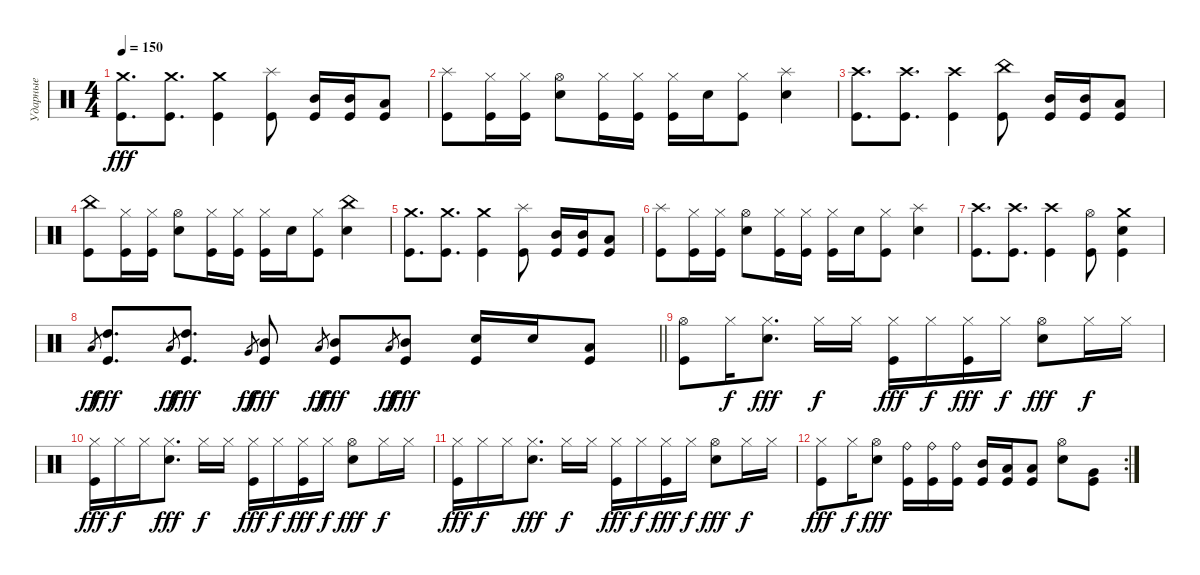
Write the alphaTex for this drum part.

\track ("Ударные" "Ударные") {instrument percussion}
\staff {score}
\articulation defaults
\ts (4 4)
\tempo 150
\clef neutral
\ks c
("Crash medium (hit)" "Kick (hit)").8{d dy fff} ("Crash medium (hit)" "Kick (hit)").8{d} ("Crash medium (hit)" "Kick (hit)").4 ("Splash (hit)" "Kick (hit)").8 ("Mid Tom (hit)" "Kick (hit)").16 ("Mid Tom (hit)" "Kick (hit)").16 ("Low Tom (hit)" "Kick (hit)").8 |
("Splash (hit)" "Kick (hit)").8 ("Hi-Hat (closed)" "Kick (hit)").16 ("Hi-Hat (closed)" "Kick (hit)").16 ("Hi-Hat (open)" "Electric Snare (hit)").8 ("Hi-Hat (closed)" "Kick (hit)").16 ("Hi-Hat (closed)" "Kick (hit)").16 ("Hi-Hat (closed)" "Kick (hit)").16 "Electric Snare (hit)".16 ("Hi-Hat (closed)" "Kick (hit)").8 ("Splash (hit)" "Electric Snare (hit)").4 |
("Crash high (hit)" "Kick (hit)").8{d} ("Crash high (hit)" "Kick (hit)").8{d} ("Crash high (hit)" "Kick (hit)").4 ("China (hit)" "Kick (hit)").8 ("Mid Tom (hit)" "Kick (hit)").16 ("Mid Tom (hit)" "Kick (hit)").16 ("Low Tom (hit)" "Kick (hit)").8 |
("China (hit)" "Kick (hit)").8 ("Hi-Hat (closed)" "Kick (hit)").16 ("Hi-Hat (closed)" "Kick (hit)").16 ("Hi-Hat (open)" "Electric Snare (hit)").8 ("Hi-Hat (closed)" "Kick (hit)").16 ("Hi-Hat (closed)" "Kick (hit)").16 ("Hi-Hat (closed)" "Kick (hit)").16 "Electric Snare (hit)".16 ("Hi-Hat (closed)" "Kick (hit)").8 ("China (hit)" "Electric Snare (hit)").4 |
("Crash medium (hit)" "Kick (hit)").8{d} ("Crash medium (hit)" "Kick (hit)").8{d} ("Crash medium (hit)" "Kick (hit)").4 ("Splash (hit)" "Kick (hit)").8 ("Mid Tom (hit)" "Kick (hit)").16 ("Mid Tom (hit)" "Kick (hit)").16 ("Low Tom (hit)" "Kick (hit)").8 |
("Splash (hit)" "Kick (hit)").8 ("Hi-Hat (closed)" "Kick (hit)").16 ("Hi-Hat (closed)" "Kick (hit)").16 ("Hi-Hat (open)" "Electric Snare (hit)").8 ("Hi-Hat (closed)" "Kick (hit)").16 ("Hi-Hat (closed)" "Kick (hit)").16 ("Hi-Hat (closed)" "Kick (hit)").16 "Electric Snare (hit)".16 ("Hi-Hat (closed)" "Kick (hit)").8 ("Splash (hit)" "Electric Snare (hit)").4 |
("Crash high (hit)" "Kick (hit)").8{d} ("Crash high (hit)" "Kick (hit)").8{d} ("Crash high (hit)" "Kick (hit)").4 ("Hi-Hat (open)" "Kick (hit)").8 ("Crash medium (hit)" "Electric Snare (hit)" "Kick (hit)").4 |
\barLineRight lightlight "Low Tom (hit)".8{gr dy ff}
("High Tom (hit)" "Kick (hit)").8{d dy fff} "Low Tom (hit)".8{gr dy ff} ("High Tom (hit)" "Kick (hit)").8{d dy fff} "Very Low Tom (hit)".8{gr dy ff} ("Mid Tom (hit)" "Kick (hit)").8{dy fff} "Low Floor Tom (hit)".8{gr dy ff} ("Mid Tom (hit)" "Kick (hit)").8{dy fff} "Low Floor Tom (hit)".8{gr dy ff} ("Mid Tom (hit)" "Kick (hit)").8{dy fff} ("Electric Snare (hit)" "Kick (hit)").16 "Electric Snare (hit)".16 ("Low Tom (hit)" "Kick (hit)").8 |
("Hi-Hat (open)" "Kick (hit)").8 "Hi-Hat (closed)".16{dy f} ("Hi-Hat (closed)" "Electric Snare (hit)").8{d dy fff} "Hi-Hat (closed)".16{dy f} "Hi-Hat (closed)".16 ("Hi-Hat (closed)" "Kick (hit)").16{dy fff} "Hi-Hat (closed)".16{dy f} ("Hi-Hat (closed)" "Kick (hit)").16{dy fff} "Hi-Hat (closed)".16{dy f} ("Hi-Hat (open)" "Electric Snare (hit)").8{dy fff} "Hi-Hat (closed)".16{dy f} "Hi-Hat (closed)".16 |
("Hi-Hat (closed)" "Kick (hit)").16{dy fff} "Hi-Hat (closed)".16{dy f} "Hi-Hat (closed)".16 ("Hi-Hat (closed)" "Electric Snare (hit)").8{d dy fff} "Hi-Hat (closed)".16{dy f} "Hi-Hat (closed)".16 ("Hi-Hat (closed)" "Kick (hit)").16{dy fff} "Hi-Hat (closed)".16{dy f} ("Hi-Hat (closed)" "Kick (hit)").16{dy fff} "Hi-Hat (closed)".16{dy f} ("Hi-Hat (open)" "Electric Snare (hit)").8{dy fff} "Hi-Hat (closed)".16{dy f} "Hi-Hat (closed)".16 |
("Hi-Hat (closed)" "Kick (hit)").16{dy fff} "Hi-Hat (closed)".16{dy f} "Hi-Hat (closed)".16 ("Hi-Hat (closed)" "Electric Snare (hit)").8{d dy fff} "Hi-Hat (closed)".16{dy f} "Hi-Hat (closed)".16 ("Hi-Hat (closed)" "Kick (hit)").16{dy fff} "Hi-Hat (closed)".16{dy f} ("Hi-Hat (closed)" "Kick (hit)").16{dy fff} "Hi-Hat (closed)".16{dy f} ("Hi-Hat (open)" "Electric Snare (hit)").8{dy fff} "Hi-Hat (closed)".16{dy f} "Hi-Hat (closed)".16 |
\rc 2
("Hi-Hat (closed)" "Kick (hit)").8{dy fff} "Hi-Hat (closed)".16{dy f} ("Hi-Hat (open)" "Electric Snare (hit)").8{dy fff} ("Ride (bell)" "Kick (hit)").16 ("Ride (bell)" "Kick (hit)").16 ("Ride (bell)" "Kick (hit)").16 ("Mid Tom (hit)" "Kick (hit)").16 ("Low Tom (hit)" "Kick (hit)").16 ("Low Tom (hit)" "Kick (hit)").8 ("Hi-Hat (open)" "Electric Snare (hit)").8 ("Very Low Tom (hit)" "Kick (hit)").8
